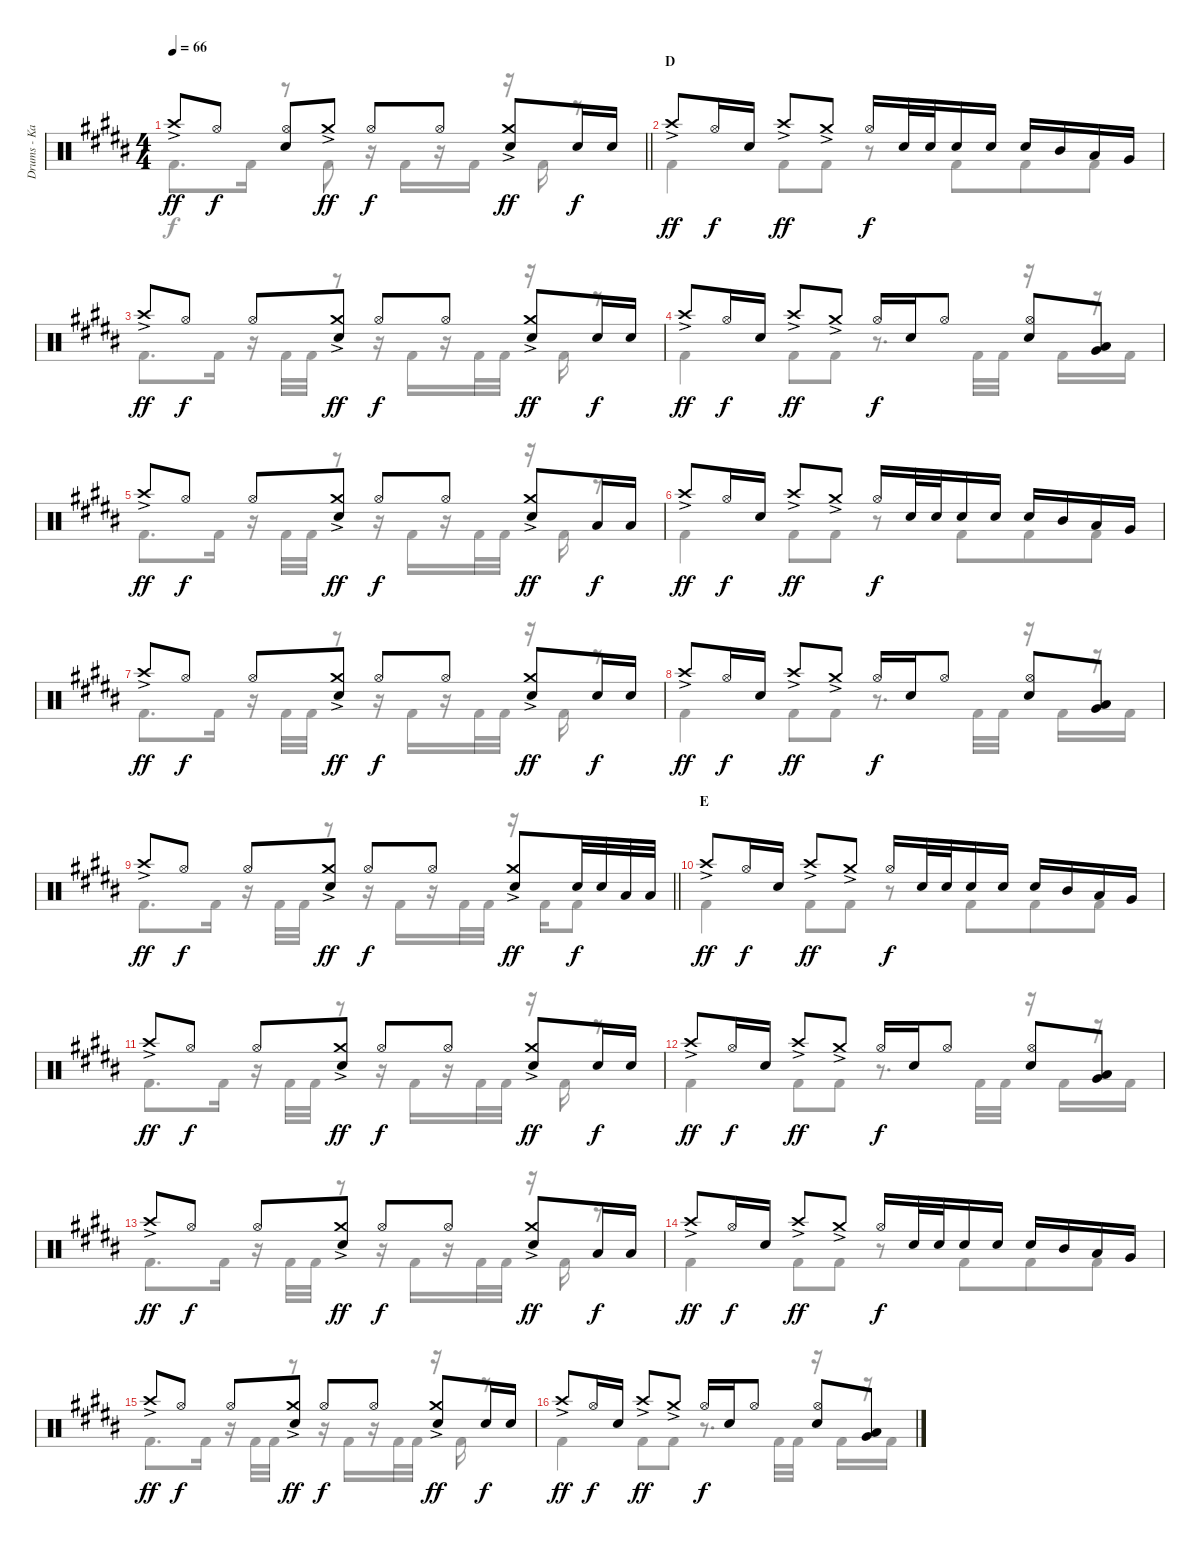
\track ("Drums - Kai" "Drums - Ka") {instrument percussion}
\staff {score}
\articulation defaults
\voice
\ts (4 4)
\tempo 66
\clef neutral
\barLineRight lightlight
\ks b "Crash high (hit)"{ac}.8{dy ff} "Hi-Hat (open)".8{dy f}
("Hi-Hat (open)" "Electric Snare (hit)").8 "Crash medium (hit)"{ac}.8{dy ff} "Hi-Hat (open)".8{dy f} "Hi-Hat (open)".8 ("Crash medium (hit)"{ac} "Electric Snare (hit)").8{dy ff} "Electric Snare (hit)".16{dy f} "Electric Snare (hit)".16 |
\section ("" "D")
"Crash high (hit)"{ac}.8{dy ff} "Hi-Hat (open)".16{dy f} "Electric Snare (hit)".16 "Crash high (hit)"{ac}.8{dy ff} "Crash medium (hit)"{ac}.8 "Hi-Hat (open)".16{dy f} "Electric Snare (hit)".32 "Electric Snare (hit)".32 "Electric Snare (hit)".16 "Electric Snare (hit)".16 "Electric Snare (hit)".16 "Mid Tom (hit)".16 "Low Tom (hit)".16 "Very Low Tom (hit)".16 |
"Crash high (hit)"{ac}.8{dy ff} "Hi-Hat (open)".8{dy f} "Hi-Hat (open)".8 ("Crash medium (hit)"{ac} "Electric Snare (hit)").8{dy ff} "Hi-Hat (open)".8{dy f} "Hi-Hat (open)".8 ("Crash medium (hit)"{ac} "Electric Snare (hit)").8{dy ff} "Electric Snare (hit)".16{dy f} "Electric Snare (hit)".16 |
"Crash high (hit)"{ac}.8{dy ff} "Hi-Hat (open)".16{dy f} "Electric Snare (hit)".16 "Crash high (hit)"{ac}.8{dy ff} "Crash medium (hit)"{ac}.8 "Hi-Hat (open)".16{dy f} "Electric Snare (hit)".16 "Hi-Hat (open)".8 ("Hi-Hat (open)" "Electric Snare (hit)").8 ("Low Tom (hit)" "Very Low Tom (hit)").8 |
"Crash high (hit)"{ac}.8{dy ff} "Hi-Hat (open)".8{dy f} "Hi-Hat (open)".8 ("Crash medium (hit)"{ac} "Electric Snare (hit)").8{dy ff} "Hi-Hat (open)".8{dy f} "Hi-Hat (open)".8 ("Crash medium (hit)"{ac} "Electric Snare (hit)").8{dy ff} "Low Tom (hit)".16{dy f} "Low Tom (hit)".16 |
"Crash high (hit)"{ac}.8{dy ff} "Hi-Hat (open)".16{dy f} "Electric Snare (hit)".16 "Crash high (hit)"{ac}.8{dy ff} "Crash medium (hit)"{ac}.8 "Hi-Hat (open)".16{dy f} "Electric Snare (hit)".32 "Electric Snare (hit)".32 "Electric Snare (hit)".16 "Electric Snare (hit)".16 "Electric Snare (hit)".16 "Mid Tom (hit)".16 "Low Tom (hit)".16 "Very Low Tom (hit)".16 |
"Crash high (hit)"{ac}.8{dy ff} "Hi-Hat (open)".8{dy f} "Hi-Hat (open)".8 ("Crash medium (hit)"{ac} "Electric Snare (hit)").8{dy ff} "Hi-Hat (open)".8{dy f} "Hi-Hat (open)".8 ("Crash medium (hit)"{ac} "Electric Snare (hit)").8{dy ff} "Electric Snare (hit)".16{dy f} "Electric Snare (hit)".16 |
"Crash high (hit)"{ac}.8{dy ff} "Hi-Hat (open)".16{dy f} "Electric Snare (hit)".16 "Crash high (hit)"{ac}.8{dy ff} "Crash medium (hit)"{ac}.8 "Hi-Hat (open)".16{dy f} "Electric Snare (hit)".16 "Hi-Hat (open)".8 ("Hi-Hat (open)" "Electric Snare (hit)").8 ("Low Tom (hit)" "Very Low Tom (hit)").8 |
\barLineRight lightlight "Crash high (hit)"{ac}.8{dy ff} "Hi-Hat (open)".8{dy f} "Hi-Hat (open)".8
("Crash medium (hit)"{ac} "Electric Snare (hit)").8{dy ff} "Hi-Hat (open)".8{dy f} "Hi-Hat (open)".8 ("Crash medium (hit)"{ac} "Electric Snare (hit)").8{dy ff} "Electric Snare (hit)".32{dy f} "Electric Snare (hit)".32 "Low Tom (hit)".32 "Low Tom (hit)".32 |
\section ("" "E")
"Crash high (hit)"{ac}.8{dy ff} "Hi-Hat (open)".16{dy f} "Electric Snare (hit)".16 "Crash high (hit)"{ac}.8{dy ff} "Crash medium (hit)"{ac}.8 "Hi-Hat (open)".16{dy f} "Electric Snare (hit)".32 "Electric Snare (hit)".32 "Electric Snare (hit)".16 "Electric Snare (hit)".16 "Electric Snare (hit)".16 "Mid Tom (hit)".16 "Low Tom (hit)".16 "Very Low Tom (hit)".16 |
"Crash high (hit)"{ac}.8{dy ff} "Hi-Hat (open)".8{dy f} "Hi-Hat (open)".8 ("Crash medium (hit)"{ac} "Electric Snare (hit)").8{dy ff} "Hi-Hat (open)".8{dy f} "Hi-Hat (open)".8 ("Crash medium (hit)"{ac} "Electric Snare (hit)").8{dy ff} "Electric Snare (hit)".16{dy f} "Electric Snare (hit)".16 |
"Crash high (hit)"{ac}.8{dy ff} "Hi-Hat (open)".16{dy f} "Electric Snare (hit)".16 "Crash high (hit)"{ac}.8{dy ff} "Crash medium (hit)"{ac}.8 "Hi-Hat (open)".16{dy f} "Electric Snare (hit)".16 "Hi-Hat (open)".8 ("Hi-Hat (open)" "Electric Snare (hit)").8 ("Low Tom (hit)" "Very Low Tom (hit)").8 |
"Crash high (hit)"{ac}.8{dy ff} "Hi-Hat (open)".8{dy f} "Hi-Hat (open)".8 ("Crash medium (hit)"{ac} "Electric Snare (hit)").8{dy ff} "Hi-Hat (open)".8{dy f} "Hi-Hat (open)".8 ("Crash medium (hit)"{ac} "Electric Snare (hit)").8{dy ff} "Low Tom (hit)".16{dy f} "Low Tom (hit)".16 |
"Crash high (hit)"{ac}.8{dy ff} "Hi-Hat (open)".16{dy f} "Electric Snare (hit)".16 "Crash high (hit)"{ac}.8{dy ff} "Crash medium (hit)"{ac}.8 "Hi-Hat (open)".16{dy f} "Electric Snare (hit)".32 "Electric Snare (hit)".32 "Electric Snare (hit)".16 "Electric Snare (hit)".16 "Electric Snare (hit)".16 "Mid Tom (hit)".16 "Low Tom (hit)".16 "Very Low Tom (hit)".16 |
"Crash high (hit)"{ac}.8{dy ff} "Hi-Hat (open)".8{dy f} "Hi-Hat (open)".8 ("Crash medium (hit)"{ac} "Snare (hit)").8{dy ff} "Hi-Hat (open)".8{dy f} "Hi-Hat (open)".8 ("Crash medium (hit)"{ac} "Electric Snare (hit)").8{dy ff} "Electric Snare (hit)".16{dy f} "Electric Snare (hit)".16 |
"Crash high (hit)"{ac}.8{dy ff} "Hi-Hat (open)".16{dy f} "Electric Snare (hit)".16 "Crash high (hit)"{ac}.8{dy ff} "Crash medium (hit)"{ac}.8 "Hi-Hat (open)".16{dy f} "Electric Snare (hit)".16 "Hi-Hat (open)".8 ("Hi-Hat (open)" "Electric Snare (hit)").8 ("Low Tom (hit)" "Very Low Tom (hit)").8
\voice
\clef neutral
\ottava regular
\simile none
\barLineRight lightlight
\ks b "Kick (hit) 2".8{d dy f} "Kick (hit) 2".16
r.8 "Kick (hit) 2".8 r.16 "Kick (hit) 2".16 r.16 "Kick (hit) 2".16 r.16 "Kick (hit) 2".16 r.8 |
"Kick (hit) 2".4 "Kick (hit) 2".8 "Kick (hit) 2".8 r.8 "Kick (hit) 2".8{beam merge} "Kick (hit) 2".8 "Kick (hit) 2".8 |
"Kick (hit) 2".8{d} "Kick (hit) 2".16 r.16 "Kick (hit) 2".32 "Kick (hit) 2".32 r.8 r.16 "Kick (hit) 2".16 r.16 "Kick (hit) 2".32 "Kick (hit) 2".32 r.16 "Kick (hit) 2".16 r.8 |
"Kick (hit) 2".4 "Kick (hit) 2".8 "Kick (hit) 2".8 r.8{d} "Kick (hit) 2".32 "Kick (hit) 2".32 r.16 "Kick (hit) 2".16 r.16 "Kick (hit) 2".16 |
"Kick (hit) 2".8{d} "Kick (hit) 2".16 r.16 "Kick (hit) 2".32 "Kick (hit) 2".32 r.8 r.16 "Kick (hit) 2".16 r.16 "Kick (hit) 2".32 "Kick (hit) 2".32 r.16 "Kick (hit) 2".16 r.8 |
"Kick (hit) 2".4 "Kick (hit) 2".8 "Kick (hit) 2".8 r.8 "Kick (hit) 2".8{beam merge} "Kick (hit) 2".8 "Kick (hit) 2".8 |
"Kick (hit) 2".8{d} "Kick (hit) 2".16 r.16 "Kick (hit) 2".32 "Kick (hit) 2".32 r.8 r.16 "Kick (hit) 2".16 r.16 "Kick (hit) 2".32 "Kick (hit) 2".32 r.16 "Kick (hit) 2".16 r.8 |
"Kick (hit) 2".4 "Kick (hit) 2".8 "Kick (hit) 2".8 r.8{d} "Kick (hit) 2".32 "Kick (hit) 2".32 r.16 "Kick (hit) 2".16 r.16 "Kick (hit) 2".16 |
\barLineRight lightlight "Kick (hit) 2".8{d} "Kick (hit) 2".16
r.16 "Kick (hit) 2".32 "Kick (hit) 2".32 r.8 r.16 "Kick (hit) 2".16 r.16 "Kick (hit) 2".32 "Kick (hit) 2".32 r.16 "Kick (hit) 2".16 "Kick (hit) 2".8 |
"Kick (hit) 2".4 "Kick (hit) 2".8 "Kick (hit) 2".8 r.8 "Kick (hit) 2".8{beam merge} "Kick (hit) 2".8 "Kick (hit) 2".8 |
"Kick (hit) 2".8{d} "Kick (hit) 2".16 r.16 "Kick (hit) 2".32 "Kick (hit) 2".32 r.8 r.16 "Kick (hit) 2".16 r.16 "Kick (hit) 2".32 "Kick (hit) 2".32 r.16 "Kick (hit) 2".16 r.8 |
"Kick (hit) 2".4 "Kick (hit) 2".8 "Kick (hit) 2".8 r.8{d} "Kick (hit) 2".32 "Kick (hit) 2".32 r.16 "Kick (hit) 2".16 r.16 "Kick (hit) 2".16 |
"Kick (hit) 2".8{d} "Kick (hit) 2".16 r.16 "Kick (hit) 2".32 "Kick (hit) 2".32 r.8 r.16 "Kick (hit) 2".16 r.16 "Kick (hit) 2".32 "Kick (hit) 2".32 r.16 "Kick (hit) 2".16 r.8 |
"Kick (hit) 2".4 "Kick (hit) 2".8 "Kick (hit) 2".8 r.8 "Kick (hit) 2".8{beam merge} "Kick (hit) 2".8 "Kick (hit) 2".8 |
"Kick (hit) 2".8{d} "Kick (hit) 2".16 r.16 "Kick (hit) 2".32 "Kick (hit) 2".32 r.8 r.16 "Kick (hit) 2".16 r.16 "Kick (hit) 2".32 "Kick (hit) 2".32 r.16 "Kick (hit) 2".16 r.8 |
"Kick (hit) 2".4 "Kick (hit) 2".8 "Kick (hit) 2".8 r.8{d} "Kick (hit) 2".32 "Kick (hit) 2".32 r.16 "Kick (hit) 2".16 r.16 "Kick (hit) 2".16
